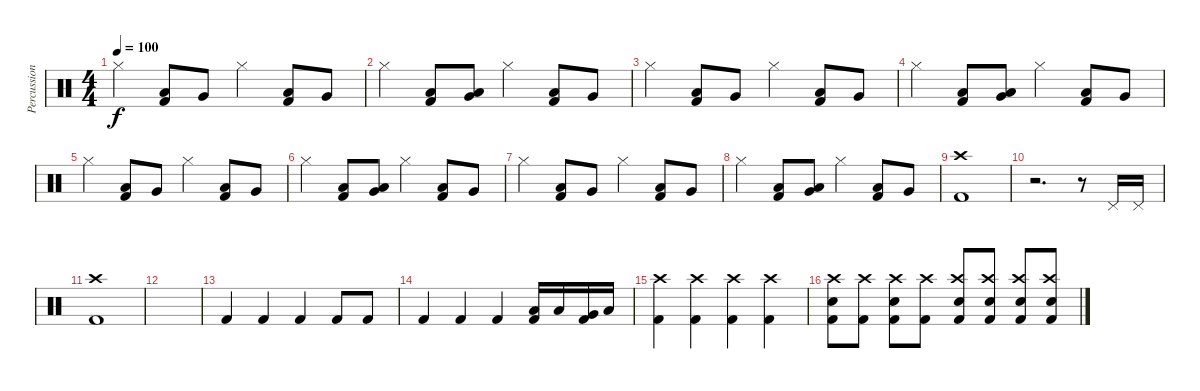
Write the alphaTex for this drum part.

\track ("Percussion" "Percussion") {instrument percussion}
\staff {score}
\articulation defaults
\ts (4 4)
\tempo 100
\clef neutral
\ks c "Hi-Hat (closed)".4{dy f}
("Low Tom (hit)" "Kick (hit) 2").8 "Very Low Tom (hit)".8 "Hi-Hat (closed)".4 ("Low Tom (hit)" "Kick (hit) 2").8 "Very Low Tom (hit)".8 |
"Hi-Hat (closed)".4 ("Low Tom (hit)" "Kick (hit) 2").8 ("Very Low Tom (hit)" "Low Floor Tom (hit)").8 "Hi-Hat (closed)".4 ("Low Tom (hit)" "Kick (hit) 2").8 "Very Low Tom (hit)".8 |
"Hi-Hat (closed)".4 ("Low Tom (hit)" "Kick (hit) 2").8 "Very Low Tom (hit)".8 "Hi-Hat (closed)".4 ("Low Tom (hit)" "Kick (hit) 2").8 "Very Low Tom (hit)".8 |
"Hi-Hat (closed)".4 ("Low Tom (hit)" "Kick (hit) 2").8 ("Very Low Tom (hit)" "Low Floor Tom (hit)").8 "Hi-Hat (closed)".4 ("Low Tom (hit)" "Kick (hit) 2").8 "Very Low Tom (hit)".8 |
"Hi-Hat (closed)".4 ("Low Tom (hit)" "Kick (hit) 2").8 "Very Low Tom (hit)".8 "Hi-Hat (closed)".4 ("Low Tom (hit)" "Kick (hit) 2").8 "Very Low Tom (hit)".8 |
"Hi-Hat (closed)".4 ("Low Tom (hit)" "Kick (hit) 2").8 ("Very Low Tom (hit)" "Low Floor Tom (hit)").8 "Hi-Hat (closed)".4 ("Low Tom (hit)" "Kick (hit) 2").8 "Very Low Tom (hit)".8 |
"Hi-Hat (closed)".4 ("Low Tom (hit)" "Kick (hit) 2").8 "Very Low Tom (hit)".8 "Hi-Hat (closed)".4 ("Low Tom (hit)" "Kick (hit) 2").8 "Very Low Tom (hit)".8 |
"Hi-Hat (closed)".4 ("Low Tom (hit)" "Kick (hit) 2").8 ("Very Low Tom (hit)" "Low Floor Tom (hit)").8 "Hi-Hat (closed)".4 ("Low Tom (hit)" "Kick (hit) 2").8 "Very Low Tom (hit)".8 |
("Crash high (hit)" "Kick (hit) 2").1 |
r.2{d} r.8 "Pedal Hi-Hat (hit)".16 "Pedal Hi-Hat (hit)".16 |
("Crash high (hit)" "Kick (hit) 2").1 |
|
"Kick (hit) 2".4 "Kick (hit) 2".4 "Kick (hit) 2".4 "Kick (hit) 2".8 "Kick (hit) 2".8 |
"Kick (hit) 2".4 "Kick (hit) 2".4 "Kick (hit) 2".4 ("Low Tom (hit)" "Kick (hit) 2").16 "Low Tom (hit)".16 ("Very Low Tom (hit)" "Kick (hit) 2").16 "Low Floor Tom (hit)".16 |
("Crash high (hit)" "Kick (hit) 2").4 ("Crash high (hit)" "Kick (hit) 2").4 ("Crash high (hit)" "Kick (hit) 2").4 ("Crash high (hit)" "Kick (hit) 2").4 |
("Crash high (hit)" "Electric Snare (hit)" "Kick (hit) 2").8 ("Crash high (hit)" "Kick (hit) 2").8 ("Crash high (hit)" "Electric Snare (hit)" "Kick (hit) 2").8 ("Crash high (hit)" "Kick (hit) 2").8 ("Crash high (hit)" "Electric Snare (hit)" "Kick (hit) 2").8 ("Crash high (hit)" "Electric Snare (hit)" "Kick (hit) 2").8 ("Crash high (hit)" "Electric Snare (hit)" "Kick (hit) 2").8 ("Crash high (hit)" "Electric Snare (hit)" "Kick (hit) 2").8
